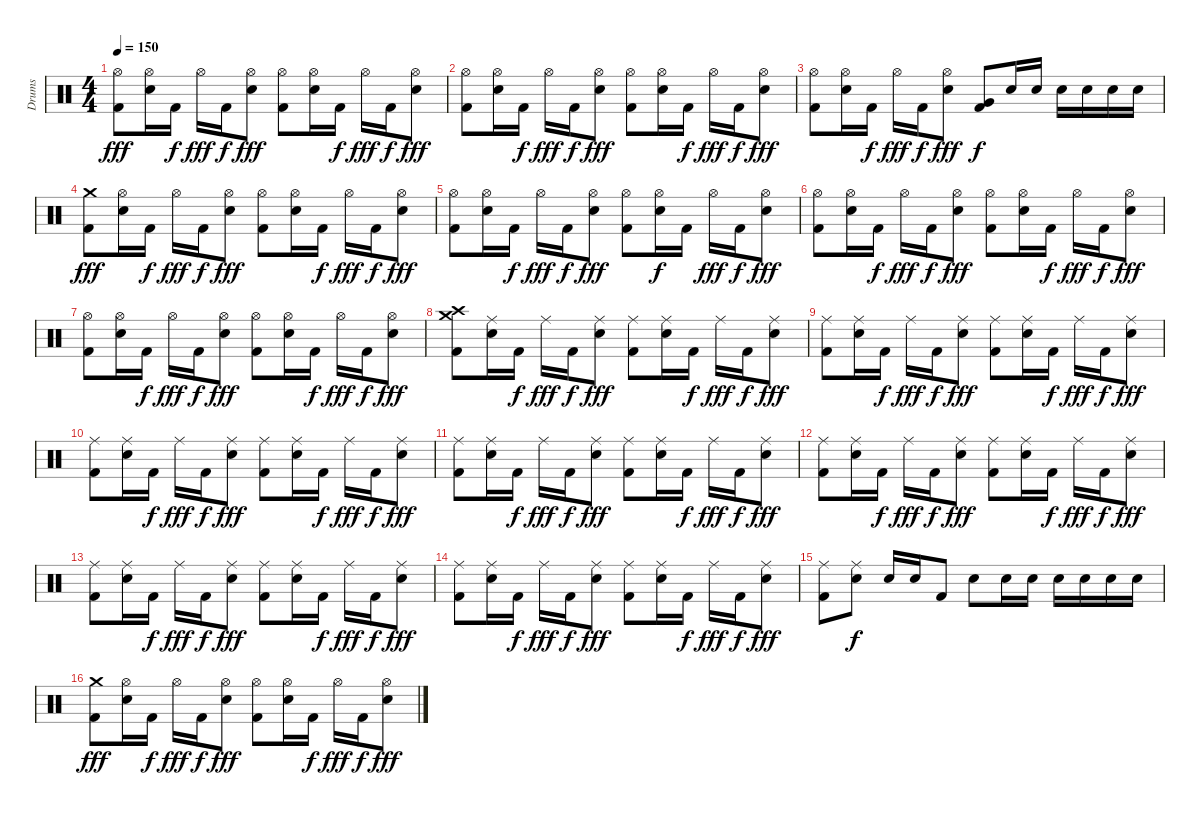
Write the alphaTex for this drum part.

\track ("Drums" "Drums") {instrument percussion}
\staff {score}
\articulation defaults
\ts (4 4)
\tempo 150
\clef neutral
\ks c
("Hi-Hat (open)" "Kick (hit) 2").8{dy fff} ("Hi-Hat (open)" "Electric Snare (hit)").16 "Kick (hit) 2".16{dy f} "Hi-Hat (open)".16{dy fff} "Kick (hit) 2".16{dy f} ("Hi-Hat (open)" "Electric Snare (hit)").8{dy fff} ("Hi-Hat (open)" "Kick (hit) 2").8 ("Hi-Hat (open)" "Electric Snare (hit)").16 "Kick (hit) 2".16{dy f} "Hi-Hat (open)".16{dy fff} "Kick (hit) 2".16{dy f} ("Hi-Hat (open)" "Electric Snare (hit)").8{dy fff} |
("Hi-Hat (open)" "Kick (hit) 2").8 ("Hi-Hat (open)" "Electric Snare (hit)").16 "Kick (hit) 2".16{dy f} "Hi-Hat (open)".16{dy fff} "Kick (hit) 2".16{dy f} ("Hi-Hat (open)" "Electric Snare (hit)").8{dy fff} ("Hi-Hat (open)" "Kick (hit) 2").8 ("Hi-Hat (open)" "Electric Snare (hit)").16 "Kick (hit) 2".16{dy f} "Hi-Hat (open)".16{dy fff} "Kick (hit) 2".16{dy f} ("Hi-Hat (open)" "Electric Snare (hit)").8{dy fff} |
("Hi-Hat (open)" "Kick (hit) 2").8 ("Hi-Hat (open)" "Electric Snare (hit)").16 "Kick (hit) 2".16{dy f} "Hi-Hat (open)".16{dy fff} "Kick (hit) 2".16{dy f} ("Hi-Hat (open)" "Electric Snare (hit)").8{dy fff} ("Very Low Tom (hit)" "Kick (hit) 2").8{dy f} "Electric Snare (hit)".16 "Electric Snare (hit)".16 "Electric Snare (hit)".16 "Electric Snare (hit)".16 "Electric Snare (hit)".16 "Electric Snare (hit)".16 |
("Crash medium (hit)" "Kick (hit) 2").8{dy fff} ("Hi-Hat (open)" "Electric Snare (hit)").16 "Kick (hit) 2".16{dy f} "Hi-Hat (open)".16{dy fff} "Kick (hit) 2".16{dy f} ("Hi-Hat (open)" "Electric Snare (hit)").8{dy fff} ("Hi-Hat (open)" "Kick (hit) 2").8 ("Hi-Hat (open)" "Electric Snare (hit)").16 "Kick (hit) 2".16{dy f} "Hi-Hat (open)".16{dy fff} "Kick (hit) 2".16{dy f} ("Hi-Hat (open)" "Electric Snare (hit)").8{dy fff} |
("Hi-Hat (open)" "Kick (hit) 2").8 ("Hi-Hat (open)" "Electric Snare (hit)").16 "Kick (hit) 2".16{dy f} "Hi-Hat (open)".16{dy fff} "Kick (hit) 2".16{dy f} ("Hi-Hat (open)" "Electric Snare (hit)").8{dy fff} ("Hi-Hat (open)" "Kick (hit) 2").8 ("Hi-Hat (open)" "Electric Snare (hit)").16{dy f} "Kick (hit) 2".16 "Hi-Hat (open)".16{dy fff} "Kick (hit) 2".16{dy f} ("Hi-Hat (open)" "Electric Snare (hit)").8{dy fff} |
("Hi-Hat (open)" "Kick (hit) 2").8 ("Hi-Hat (open)" "Electric Snare (hit)").16 "Kick (hit) 2".16{dy f} "Hi-Hat (open)".16{dy fff} "Kick (hit) 2".16{dy f} ("Hi-Hat (open)" "Electric Snare (hit)").8{dy fff} ("Hi-Hat (open)" "Kick (hit) 2").8 ("Hi-Hat (open)" "Electric Snare (hit)").16 "Kick (hit) 2".16{dy f} "Hi-Hat (open)".16{dy fff} "Kick (hit) 2".16{dy f} ("Hi-Hat (open)" "Electric Snare (hit)").8{dy fff} |
("Hi-Hat (open)" "Kick (hit) 2").8 ("Hi-Hat (open)" "Electric Snare (hit)").16 "Kick (hit) 2".16{dy f} "Hi-Hat (open)".16{dy fff} "Kick (hit) 2".16{dy f} ("Hi-Hat (open)" "Electric Snare (hit)").8{dy fff} ("Hi-Hat (open)" "Kick (hit) 2").8 ("Hi-Hat (open)" "Electric Snare (hit)").16 "Kick (hit) 2".16{dy f} "Hi-Hat (open)".16{dy fff} "Kick (hit) 2".16{dy f} ("Hi-Hat (open)" "Electric Snare (hit)").8{dy fff} |
("Crash high (hit)" "Crash medium (hit)" "Kick (hit) 2").8 ("Ride (middle)" "Electric Snare (hit)").16 "Kick (hit) 2".16{dy f} "Ride (middle)".16{dy fff} "Kick (hit) 2".16{dy f} ("Ride (middle)" "Electric Snare (hit)").8{dy fff} ("Ride (middle)" "Kick (hit) 2").8 ("Ride (middle)" "Electric Snare (hit)").16 "Kick (hit) 2".16{dy f} "Ride (middle)".16{dy fff} "Kick (hit) 2".16{dy f} ("Ride (middle)" "Electric Snare (hit)").8{dy fff} |
("Ride (middle)" "Kick (hit) 2").8 ("Ride (middle)" "Electric Snare (hit)").16 "Kick (hit) 2".16{dy f} "Ride (middle)".16{dy fff} "Kick (hit) 2".16{dy f} ("Ride (middle)" "Electric Snare (hit)").8{dy fff} ("Ride (middle)" "Kick (hit) 2").8 ("Ride (middle)" "Electric Snare (hit)").16 "Kick (hit) 2".16{dy f} "Ride (middle)".16{dy fff} "Kick (hit) 2".16{dy f} ("Ride (middle)" "Electric Snare (hit)").8{dy fff} |
("Ride (middle)" "Kick (hit) 2").8 ("Ride (middle)" "Electric Snare (hit)").16 "Kick (hit) 2".16{dy f} "Ride (middle)".16{dy fff} "Kick (hit) 2".16{dy f} ("Ride (middle)" "Electric Snare (hit)").8{dy fff} ("Ride (middle)" "Kick (hit) 2").8 ("Ride (middle)" "Electric Snare (hit)").16 "Kick (hit) 2".16{dy f} "Ride (middle)".16{dy fff} "Kick (hit) 2".16{dy f} ("Ride (middle)" "Electric Snare (hit)").8{dy fff} |
("Ride (middle)" "Kick (hit) 2").8 ("Ride (middle)" "Electric Snare (hit)").16 "Kick (hit) 2".16{dy f} "Ride (middle)".16{dy fff} "Kick (hit) 2".16{dy f} ("Ride (middle)" "Electric Snare (hit)").8{dy fff} ("Ride (middle)" "Kick (hit) 2").8 ("Ride (middle)" "Electric Snare (hit)").16 "Kick (hit) 2".16{dy f} "Ride (middle)".16{dy fff} "Kick (hit) 2".16{dy f} ("Ride (middle)" "Electric Snare (hit)").8{dy fff} |
("Ride (middle)" "Kick (hit) 2").8 ("Ride (middle)" "Electric Snare (hit)").16 "Kick (hit) 2".16{dy f} "Ride (middle)".16{dy fff} "Kick (hit) 2".16{dy f} ("Ride (middle)" "Electric Snare (hit)").8{dy fff} ("Ride (middle)" "Kick (hit) 2").8 ("Ride (middle)" "Electric Snare (hit)").16 "Kick (hit) 2".16{dy f} "Ride (middle)".16{dy fff} "Kick (hit) 2".16{dy f} ("Ride (middle)" "Electric Snare (hit)").8{dy fff} |
("Ride (middle)" "Kick (hit) 2").8 ("Ride (middle)" "Electric Snare (hit)").16 "Kick (hit) 2".16{dy f} "Ride (middle)".16{dy fff} "Kick (hit) 2".16{dy f} ("Ride (middle)" "Electric Snare (hit)").8{dy fff} ("Ride (middle)" "Kick (hit) 2").8 ("Ride (middle)" "Electric Snare (hit)").16 "Kick (hit) 2".16{dy f} "Ride (middle)".16{dy fff} "Kick (hit) 2".16{dy f} ("Ride (middle)" "Electric Snare (hit)").8{dy fff} |
("Ride (middle)" "Kick (hit) 2").8 ("Ride (middle)" "Electric Snare (hit)").16 "Kick (hit) 2".16{dy f} "Ride (middle)".16{dy fff} "Kick (hit) 2".16{dy f} ("Ride (middle)" "Electric Snare (hit)").8{dy fff} ("Ride (middle)" "Kick (hit) 2").8 ("Ride (middle)" "Electric Snare (hit)").16 "Kick (hit) 2".16{dy f} "Ride (middle)".16{dy fff} "Kick (hit) 2".16{dy f} ("Ride (middle)" "Electric Snare (hit)").8{dy fff} |
("Ride (middle)" "Kick (hit) 2").8 ("Ride (middle)" "Electric Snare (hit)").8{dy f} "Electric Snare (hit)".16 "Electric Snare (hit)".16 "Kick (hit) 2".8 "Electric Snare (hit)".8 "Electric Snare (hit)".16 "Electric Snare (hit)".16 "Electric Snare (hit)".16 "Electric Snare (hit)".16 "Electric Snare (hit)".16 "Electric Snare (hit)".16 |
("Crash medium (hit)" "Kick (hit) 2").8{dy fff} ("Hi-Hat (open)" "Electric Snare (hit)").16 "Kick (hit) 2".16{dy f} "Hi-Hat (open)".16{dy fff} "Kick (hit) 2".16{dy f} ("Hi-Hat (open)" "Electric Snare (hit)").8{dy fff} ("Hi-Hat (open)" "Kick (hit) 2").8 ("Hi-Hat (open)" "Electric Snare (hit)").16 "Kick (hit) 2".16{dy f} "Hi-Hat (open)".16{dy fff} "Kick (hit) 2".16{dy f} ("Hi-Hat (open)" "Electric Snare (hit)").8{dy fff}
